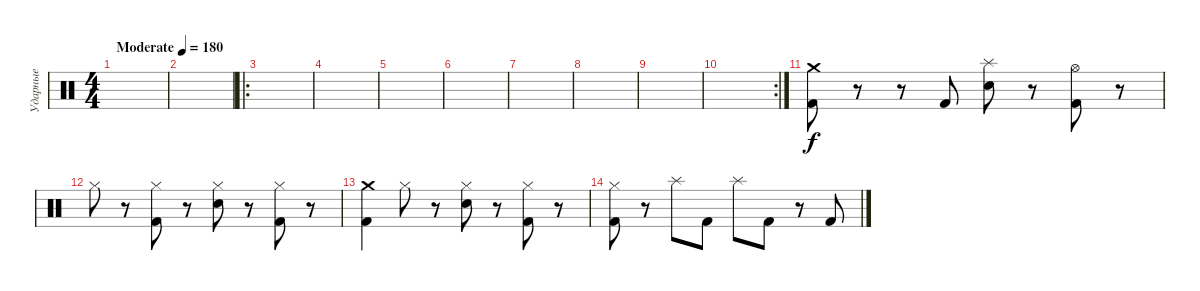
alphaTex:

\track ("Ударные" "Ударные") {instrument percussion}
\staff {score}
\articulation defaults
\ts (4 4)
\tempo (180 "Moderate")
\clef neutral
\ks c
|
|
\ro
|
|
|
|
|
|
|
\rc 2
|
("Crash medium (hit)" "Kick (hit) 2").8 r.8 r.8 "Kick (hit) 2".8 ("Splash (hit)" "Electric Snare (hit)").8 r.8 ("Hi-Hat (open)" "Kick (hit) 2").8 r.8 |
"Hi-Hat (closed)".8 r.8 ("Hi-Hat (closed)" "Kick (hit) 2").8 r.8 ("Hi-Hat (closed)" "Electric Snare (hit)").8 r.8 ("Hi-Hat (closed)" "Kick (hit) 2").8 r.8 |
("Crash medium (hit)" "Kick (hit) 2").4 "Hi-Hat (closed)".8 r.8 ("Hi-Hat (closed)" "Electric Snare (hit)").8 r.8 ("Hi-Hat (closed)" "Kick (hit) 2").8 r.8 |
("Hi-Hat (closed)" "Kick (hit) 2").8 r.8 "Splash (hit)".8 "Kick (hit) 2".8 "Splash (hit)".8 "Kick (hit) 2".8 r.8 "Kick (hit) 2".8
